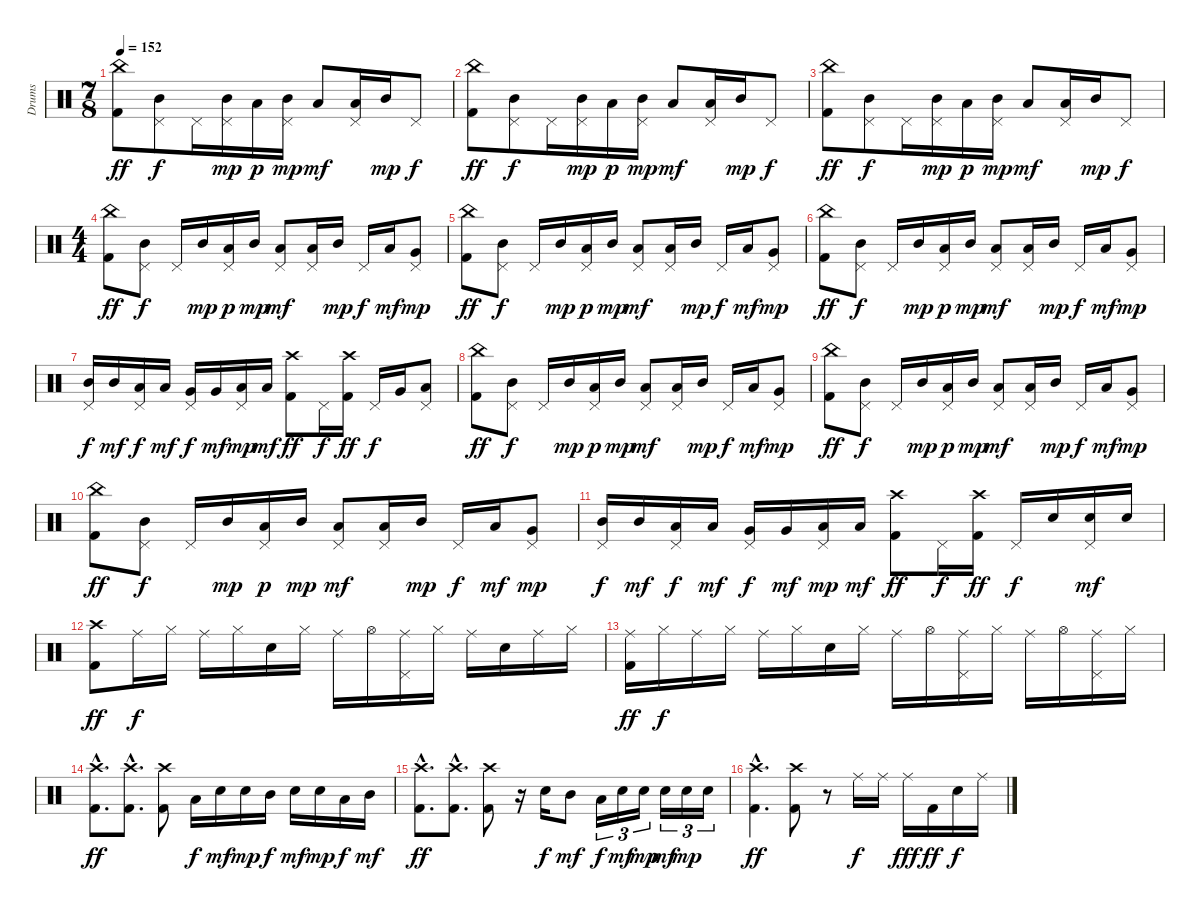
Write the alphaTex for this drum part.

\track ("Drums" "Drums") {instrument percussion}
\staff {score}
\articulation defaults
\ts (7 8)
\tempo 152
\clef neutral
\ks c
("China (hit)" "Kick (hit) 2").8{dy ff} ("Pedal Hi-Hat (hit)" "Mid Tom (hit)").8{dy f} "Pedal Hi-Hat (hit)".16 ("Pedal Hi-Hat (hit)" "Mid Tom (hit)").16{dy mp} "Low Tom (hit)".16{dy p} ("Pedal Hi-Hat (hit)" "Mid Tom (hit)").16{dy mp} "Low Tom (hit)".8{dy mf} ("Pedal Hi-Hat (hit)" "Low Tom (hit)").16 "Mid Tom (hit)".16{dy mp} "Pedal Hi-Hat (hit)".8{dy f} |
("China (hit)" "Kick (hit) 2").8{dy ff} ("Pedal Hi-Hat (hit)" "Mid Tom (hit)").8{dy f} "Pedal Hi-Hat (hit)".16 ("Pedal Hi-Hat (hit)" "Mid Tom (hit)").16{dy mp} "Low Tom (hit)".16{dy p} ("Pedal Hi-Hat (hit)" "Mid Tom (hit)").16{dy mp} "Low Tom (hit)".8{dy mf} ("Pedal Hi-Hat (hit)" "Low Tom (hit)").16 "Mid Tom (hit)".16{dy mp} "Pedal Hi-Hat (hit)".8{dy f} |
("China (hit)" "Kick (hit) 2").8{dy ff} ("Pedal Hi-Hat (hit)" "Mid Tom (hit)").8{dy f} "Pedal Hi-Hat (hit)".16 ("Pedal Hi-Hat (hit)" "Mid Tom (hit)").16{dy mp} "Low Tom (hit)".16{dy p} ("Pedal Hi-Hat (hit)" "Mid Tom (hit)").16{dy mp} "Low Tom (hit)".8{dy mf} ("Pedal Hi-Hat (hit)" "Low Tom (hit)").16 "Mid Tom (hit)".16{dy mp} "Pedal Hi-Hat (hit)".8{dy f} |
\ts (4 4)
("China (hit)" "Kick (hit) 2").8{dy ff} ("Pedal Hi-Hat (hit)" "Mid Tom (hit)").8{dy f} "Pedal Hi-Hat (hit)".16 "Mid Tom (hit)".16{dy mp} ("Pedal Hi-Hat (hit)" "Low Tom (hit)").16{dy p} "Mid Tom (hit)".16{dy mp} ("Pedal Hi-Hat (hit)" "Low Tom (hit)").8{dy mf} ("Pedal Hi-Hat (hit)" "Low Tom (hit)").16 "Mid Tom (hit)".16{dy mp} "Pedal Hi-Hat (hit)".16{dy f} "Low Tom (hit)".16{dy mf} ("Pedal Hi-Hat (hit)" "Very Low Tom (hit)").8{dy mp} |
("China (hit)" "Kick (hit) 2").8{dy ff} ("Pedal Hi-Hat (hit)" "Mid Tom (hit)").8{dy f} "Pedal Hi-Hat (hit)".16 "Mid Tom (hit)".16{dy mp} ("Pedal Hi-Hat (hit)" "Low Tom (hit)").16{dy p} "Mid Tom (hit)".16{dy mp} ("Pedal Hi-Hat (hit)" "Low Tom (hit)").8{dy mf} ("Pedal Hi-Hat (hit)" "Low Tom (hit)").16 "Mid Tom (hit)".16{dy mp} "Pedal Hi-Hat (hit)".16{dy f} "Low Tom (hit)".16{dy mf} ("Pedal Hi-Hat (hit)" "Very Low Tom (hit)").8{dy mp} |
("China (hit)" "Kick (hit) 2").8{dy ff} ("Pedal Hi-Hat (hit)" "Mid Tom (hit)").8{dy f} "Pedal Hi-Hat (hit)".16 "Mid Tom (hit)".16{dy mp} ("Pedal Hi-Hat (hit)" "Low Tom (hit)").16{dy p} "Mid Tom (hit)".16{dy mp} ("Pedal Hi-Hat (hit)" "Low Tom (hit)").8{dy mf} ("Pedal Hi-Hat (hit)" "Low Tom (hit)").16 "Mid Tom (hit)".16{dy mp} "Pedal Hi-Hat (hit)".16{dy f} "Low Tom (hit)".16{dy mf} ("Pedal Hi-Hat (hit)" "Very Low Tom (hit)").8{dy mp} |
("Pedal Hi-Hat (hit)" "Mid Tom (hit)").16{dy f} "Mid Tom (hit)".16{dy mf} ("Pedal Hi-Hat (hit)" "Low Tom (hit)").16{dy f} "Low Tom (hit)".16{dy mf} ("Pedal Hi-Hat (hit)" "Very Low Tom (hit)").16{dy f} "Very Low Tom (hit)".16{dy mf} ("Pedal Hi-Hat (hit)" "Low Floor Tom (hit)").16{dy mp} "Low Floor Tom (hit)".16{dy mf} ("Crash high (hit)" "Kick (hit) 2").8{dy ff} "Pedal Hi-Hat (hit)".16{dy f} ("Crash high (hit)" "Kick (hit) 2").16{dy ff} "Pedal Hi-Hat (hit)".16{dy f} "Very Low Tom (hit)".16 ("Pedal Hi-Hat (hit)" "Low Tom (hit)").8 |
("China (hit)" "Kick (hit) 2").8{dy ff} ("Pedal Hi-Hat (hit)" "Mid Tom (hit)").8{dy f} "Pedal Hi-Hat (hit)".16 "Mid Tom (hit)".16{dy mp} ("Pedal Hi-Hat (hit)" "Low Tom (hit)").16{dy p} "Mid Tom (hit)".16{dy mp} ("Pedal Hi-Hat (hit)" "Low Tom (hit)").8{dy mf} ("Pedal Hi-Hat (hit)" "Low Tom (hit)").16 "Mid Tom (hit)".16{dy mp} "Pedal Hi-Hat (hit)".16{dy f} "Low Tom (hit)".16{dy mf} ("Pedal Hi-Hat (hit)" "Very Low Tom (hit)").8{dy mp} |
("China (hit)" "Kick (hit) 2").8{dy ff} ("Pedal Hi-Hat (hit)" "Mid Tom (hit)").8{dy f} "Pedal Hi-Hat (hit)".16 "Mid Tom (hit)".16{dy mp} ("Pedal Hi-Hat (hit)" "Low Tom (hit)").16{dy p} "Mid Tom (hit)".16{dy mp} ("Pedal Hi-Hat (hit)" "Low Tom (hit)").8{dy mf} ("Pedal Hi-Hat (hit)" "Low Tom (hit)").16 "Mid Tom (hit)".16{dy mp} "Pedal Hi-Hat (hit)".16{dy f} "Low Tom (hit)".16{dy mf} ("Pedal Hi-Hat (hit)" "Very Low Tom (hit)").8{dy mp} |
("China (hit)" "Kick (hit) 2").8{dy ff} ("Pedal Hi-Hat (hit)" "Mid Tom (hit)").8{dy f} "Pedal Hi-Hat (hit)".16 "Mid Tom (hit)".16{dy mp} ("Pedal Hi-Hat (hit)" "Low Tom (hit)").16{dy p} "Mid Tom (hit)".16{dy mp} ("Pedal Hi-Hat (hit)" "Low Tom (hit)").8{dy mf} ("Pedal Hi-Hat (hit)" "Low Tom (hit)").16 "Mid Tom (hit)".16{dy mp} "Pedal Hi-Hat (hit)".16{dy f} "Low Tom (hit)".16{dy mf} ("Pedal Hi-Hat (hit)" "Very Low Tom (hit)").8{dy mp} |
("Pedal Hi-Hat (hit)" "Mid Tom (hit)").16{dy f} "Mid Tom (hit)".16{dy mf} ("Pedal Hi-Hat (hit)" "Low Tom (hit)").16{dy f} "Low Tom (hit)".16{dy mf} ("Pedal Hi-Hat (hit)" "Very Low Tom (hit)").16{dy f} "Very Low Tom (hit)".16{dy mf} ("Pedal Hi-Hat (hit)" "Low Floor Tom (hit)").16{dy mp} "Low Floor Tom (hit)".16{dy mf} ("Crash high (hit)" "Kick (hit) 2").8{dy ff} "Pedal Hi-Hat (hit)".16{dy f} ("Crash high (hit)" "Kick (hit) 2").16{dy ff} "Pedal Hi-Hat (hit)".16{dy f} "Snare (hit) 2".16 ("Pedal Hi-Hat (hit)" "Snare (hit) 2").16{dy mf} "Snare (hit) 2".16 |
("Crash high (hit)" "Kick (hit) 2").8{dy ff} "Ride (middle)".16{dy f} "Hi-Hat (closed)".16 "Ride (middle)".16 "Hi-Hat (closed)".16 "Snare (hit) 2".16 "Hi-Hat (closed)".16 "Ride (middle)".16 "Hi-Hat (open)".16 ("Ride (middle)" "Pedal Hi-Hat (hit)").16 "Hi-Hat (closed)".16 "Ride (middle)".16 "Snare (hit) 2".16 "Ride (middle)".16 "Hi-Hat (closed)".16 |
("Ride (middle)" "Kick (hit) 2").16{dy ff} "Hi-Hat (closed)".16{dy f} "Ride (middle)".16 "Hi-Hat (closed)".16 "Ride (middle)".16 "Hi-Hat (closed)".16 "Snare (hit) 2".16 "Hi-Hat (closed)".16 "Ride (middle)".16 "Hi-Hat (open)".16 ("Ride (middle)" "Pedal Hi-Hat (hit)").16 "Hi-Hat (closed)".16 "Ride (middle)".16 "Hi-Hat (open)".16 ("Ride (middle)" "Pedal Hi-Hat (hit)").16 "Hi-Hat (closed)".16 |
("Crash high (hit)"{hac} "Kick (hit) 2"{hac}).8{d dy ff} ("Crash high (hit)"{hac} "Kick (hit) 2"{hac}).8{d} ("Crash high (hit)" "Kick (hit) 2").8 "Low Tom (hit)".16{dy f} "Snare (hit) 2".16{dy mf} "Snare (hit) 2".16{dy mp} "Mid Tom (hit)".16{dy f} "Snare (hit) 2".16{dy mf} "Snare (hit) 2".16{dy mp} "Low Tom (hit)".16{dy f} "Mid Tom (hit)".16{dy mf} |
("Crash high (hit)"{hac} "Kick (hit) 2"{hac}).8{d dy ff} ("Crash high (hit)"{hac} "Kick (hit) 2"{hac}).8{d} ("Crash high (hit)" "Kick (hit) 2").8 r.16 "Snare (hit) 2".16{dy f} "Mid Tom (hit)".8{dy mf} "Low Tom (hit)".16{tu (3 2) dy f} "Snare (hit) 2".16{tu (3 2) dy mf} "Snare (hit) 2".16{tu (3 2) dy mp} "Snare (hit) 2".16{tu (3 2) dy mf} "Snare (hit) 2".16{tu (3 2) dy mp} "Snare (hit) 2".16{tu (3 2)} |
("Crash high (hit)"{hac} "Kick (hit) 2"{hac}).4{d dy ff} ("Crash high (hit)" "Kick (hit) 2").8 r.8 "Ride (middle)".16{dy f} "Ride (middle)".16 "Ride (middle)".16{dy fff} "Kick (hit) 2".16{dy ff} "Snare (hit) 2".16{dy f} "Ride (middle)".16
